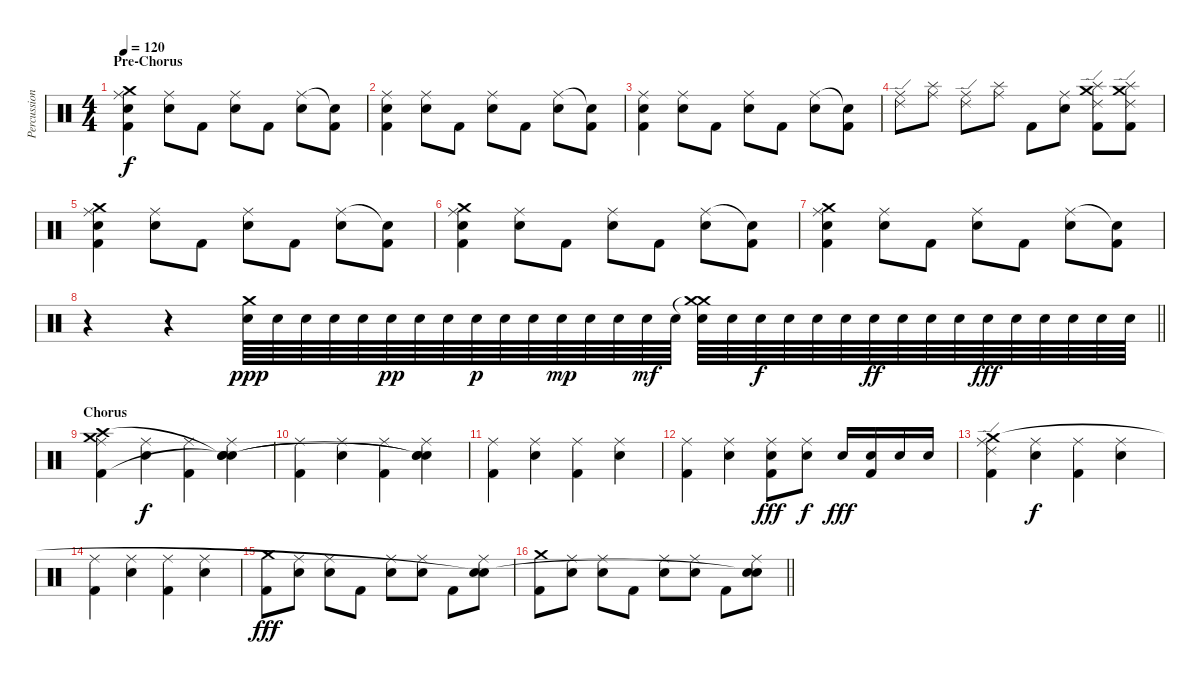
\track ("Percussion" "Percussion") {instrument percussion}
\staff {score}
\articulation defaults
\ts (4 4)
\section ("" "Pre-Chorus")
\tempo 120
\clef neutral
\ks c
("Ride (middle)" "Snare (hit) 2" "Crash medium (hit)" "Kick (hit) 2").4{dy f} ("Ride (middle)" "Snare (hit) 2").8 "Kick (hit) 2".8 ("Ride (middle)" "Snare (hit) 2").8 "Kick (hit) 2".8 ("Ride (middle)" "Snare (hit) 2").8 ("Snare (hit)"{t} "Kick (hit) 2").8 |
("Ride (middle)" "Snare (hit) 2" "Kick (hit) 2").4 ("Ride (middle)" "Snare (hit) 2").8 "Kick (hit) 2".8 ("Ride (middle)" "Snare (hit) 2").8 "Kick (hit) 2".8 ("Ride (middle)" "Snare (hit) 2").8 ("Snare (hit)"{t} "Kick (hit) 2").8 |
("Ride (middle)" "Snare (hit) 2" "Kick (hit) 2").4 ("Ride (middle)" "Snare (hit) 2").8 "Kick (hit) 2".8 ("Ride (middle)" "Snare (hit) 2").8 "Kick (hit) 2".8 ("Ride (middle)" "Snare (hit) 2").8 ("Snare (hit)"{t} "Kick (hit) 2").8 |
("Ride (middle)" "Ride (edge) 2").8 ("Ride (middle)" "Splash (hit)").8 ("Ride (middle)" "Ride (edge) 2").8 ("Ride (middle)" "Splash (hit)").8 "Kick (hit) 2".8 ("Ride (middle)" "Snare (hit) 2").8 ("Crash medium (hit)" "Splash (hit)" "Ride (edge) 2" "Kick (hit) 2").8 ("Crash medium (hit)" "Splash (hit)" "Ride (edge) 2" "Kick (hit) 2").8 |
("Ride (middle)" "Snare (hit) 2" "Crash medium (hit)" "Kick (hit) 2").4 ("Ride (middle)" "Snare (hit) 2").8 "Kick (hit) 2".8 ("Ride (middle)" "Snare (hit) 2").8 "Kick (hit) 2".8 ("Ride (middle)" "Snare (hit) 2").8 ("Snare (hit)"{t} "Kick (hit) 2").8 |
("Ride (middle)" "Snare (hit) 2" "Crash medium (hit)" "Kick (hit) 2").4 ("Ride (middle)" "Snare (hit) 2").8 "Kick (hit) 2".8 ("Ride (middle)" "Snare (hit) 2").8 "Kick (hit) 2".8 ("Ride (middle)" "Snare (hit) 2").8 ("Snare (hit)"{t} "Kick (hit) 2").8 |
("Ride (middle)" "Snare (hit) 2" "Crash medium (hit)" "Kick (hit) 2").4 ("Ride (middle)" "Snare (hit) 2").8 "Kick (hit) 2".8 ("Ride (middle)" "Snare (hit) 2").8 "Kick (hit) 2".8 ("Ride (middle)" "Snare (hit) 2").8 ("Snare (hit)"{t} "Kick (hit) 2").8 |
\barLineRight lightlight
r.4 r.4 ("Crash medium (hit)" "Snare (hit) 2").64{dy ppp} "Snare (hit) 2".64 "Snare (hit) 2".64 "Snare (hit) 2".64 "Snare (hit) 2".64 "Snare (hit) 2".64{dy pp} "Snare (hit) 2".64 "Snare (hit) 2".64 "Snare (hit) 2".64{dy p} "Snare (hit) 2".64 "Snare (hit) 2".64 "Snare (hit) 2".64{dy mp} "Snare (hit) 2".64 "Snare (hit) 2".64 "Snare (hit) 2".64{dy mf} "Snare (hit) 2".64 ("Crash medium (hit)"{t} "Snare (hit) 2" "Crash medium (hit)").64 "Snare (hit) 2".64 "Snare (hit) 2".64{dy f} "Snare (hit) 2".64 "Snare (hit) 2".64 "Snare (hit) 2".64 "Snare (hit) 2".64{dy ff} "Snare (hit) 2".64 "Snare (hit) 2".64 "Snare (hit) 2".64 "Snare (hit) 2".64{dy fff} "Snare (hit) 2".64 "Snare (hit) 2".64 "Snare (hit) 2".64 "Snare (hit) 2".64 "Snare (hit) 2".64 |
\section ("" "Chorus")
("Ride (middle)" "Crash medium (hit)" "Crash high (hit)" "Kick (hit) 2").4 ("Ride (middle)" "Snare (hit) 2").4{dy f} ("Ride (middle)" "Kick (hit) 2").4 ("Ride (middle)" "Snare (hit) 2" "Snare (hit)"{t} "Snare (hit)"{t}).4 |
("Ride (middle)" "Kick (hit) 2").4 ("Ride (middle)" "Snare (hit) 2").4 ("Ride (middle)" "Kick (hit) 2").4 ("Ride (middle)" "Snare (hit) 2" "Snare (hit)"{t} "Snare (hit)"{t}).4 |
("Ride (middle)" "Kick (hit) 2").4 ("Ride (middle)" "Snare (hit) 2").4 ("Ride (middle)" "Kick (hit) 2").4 ("Ride (middle)" "Snare (hit) 2").4 |
("Ride (middle)" "Kick (hit) 2").4 ("Ride (middle)" "Snare (hit) 2").4 ("Ride (middle)" "Snare (hit) 2" "Kick (hit) 2").8{dy fff} ("Ride (middle)" "Snare (hit) 2").8{dy f} "Snare (hit) 2".16{dy fff} ("Snare (hit) 2" "Kick (hit) 2").16 "Snare (hit) 2".16 "Snare (hit) 2".16 |
("Ride (middle)" "Ride (edge) 2" "Crash medium (hit)" "Kick (hit) 2").4 ("Ride (middle)" "Snare (hit) 2").4{dy f} ("Ride (middle)" "Kick (hit) 2").4 ("Ride (middle)" "Snare (hit) 2").4 |
("Ride (middle)" "Kick (hit) 2").4 ("Ride (middle)" "Snare (hit) 2").4 ("Ride (middle)" "Kick (hit) 2").4 ("Ride (middle)" "Snare (hit) 2").4 |
("Crash medium (hit)" "Kick (hit) 2").8{dy fff} ("Ride (middle)" "Snare (hit) 2").8 ("Ride (middle)" "Snare (hit) 2").8 "Kick (hit) 2".8 ("Ride (middle)" "Snare (hit) 2").8 ("Ride (middle)" "Snare (hit) 2").8 "Kick (hit) 2".8 ("Ride (middle)" "Snare (hit) 2" "Snare (hit)"{t}).8 |
\barLineRight lightlight
("Crash medium (hit)" "Kick (hit) 2").8 ("Ride (middle)" "Snare (hit) 2").8 ("Ride (middle)" "Snare (hit) 2").8 "Kick (hit) 2".8 ("Ride (middle)" "Snare (hit) 2").8 ("Ride (middle)" "Snare (hit) 2").8 "Kick (hit) 2".8 ("Ride (middle)" "Snare (hit) 2" "Snare (hit)"{t}).8
